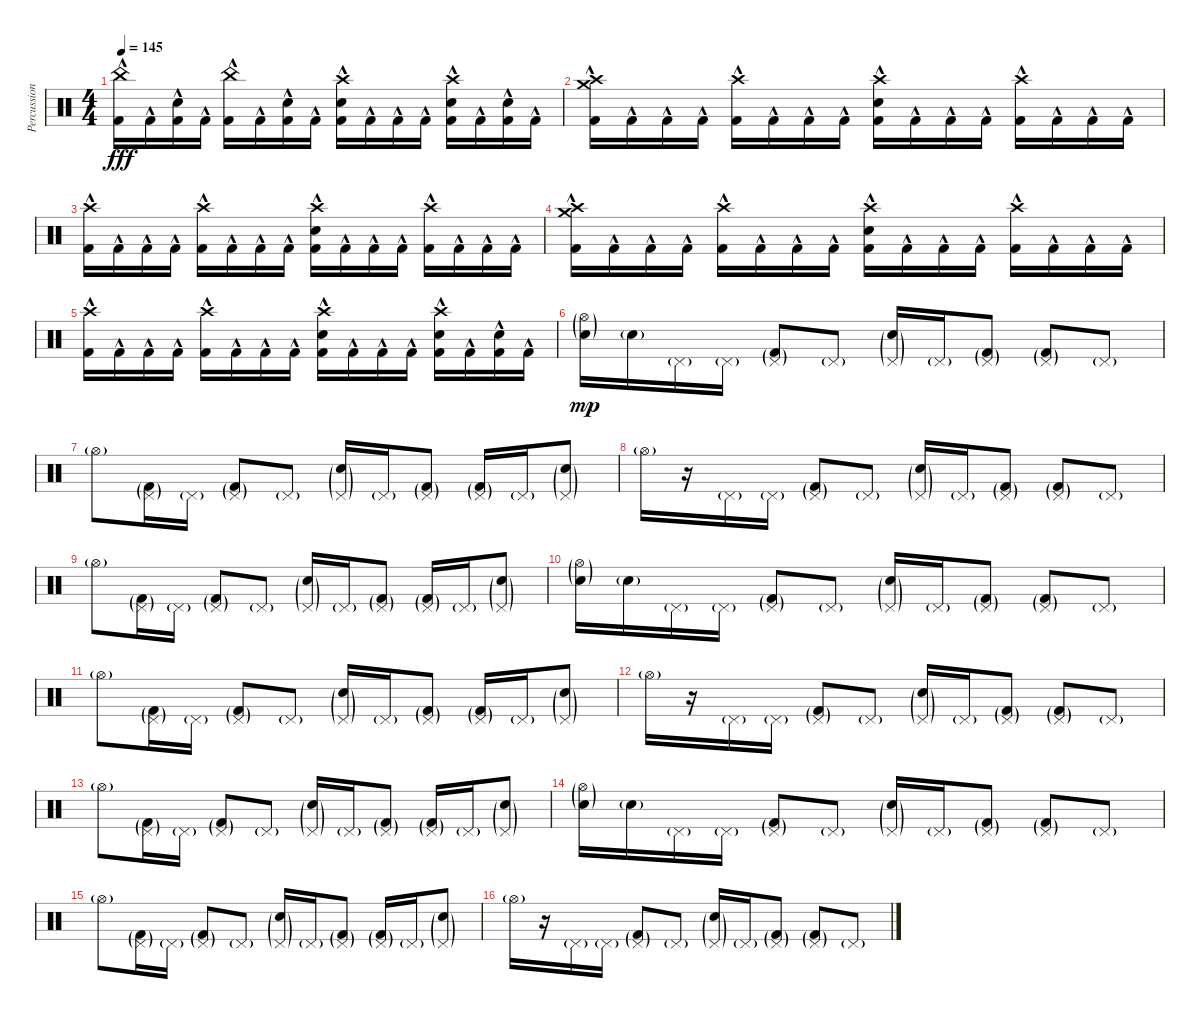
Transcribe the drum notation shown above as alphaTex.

\track ("Percussion" "Percussion") {instrument percussion}
\staff {score}
\articulation defaults
\ts (4 4)
\tempo 145
\clef neutral
\ks c
("China (hit)" "Kick (hit) 2"{hac}).16{dy fff} "Kick (hit) 2"{hac}.16 ("Snare (hit) 2" "Kick (hit) 2"{hac}).16 "Kick (hit) 2"{hac}.16 ("China (hit)" "Kick (hit) 2"{hac}).16 "Kick (hit) 2"{hac}.16 ("Snare (hit) 2" "Kick (hit) 2"{hac}).16 "Kick (hit) 2"{hac}.16 ("Crash high (hit)" "Snare (hit) 2" "Kick (hit) 2"{hac}).16 "Kick (hit) 2"{hac}.16 "Kick (hit) 2"{hac}.16 "Kick (hit) 2"{hac}.16 ("Crash high (hit)" "Snare (hit) 2" "Kick (hit) 2"{hac}).16 "Kick (hit) 2"{hac}.16 ("Snare (hit) 2" "Kick (hit) 2"{hac}).16 "Kick (hit) 2"{hac}.16 |
("Crash medium (hit)" "Crash high (hit)" "Kick (hit) 2"{hac}).16 "Kick (hit) 2"{hac}.16 "Kick (hit) 2"{hac}.16 "Kick (hit) 2"{hac}.16 ("Crash high (hit)" "Kick (hit) 2"{hac}).16 "Kick (hit) 2"{hac}.16 "Kick (hit) 2"{hac}.16 "Kick (hit) 2"{hac}.16 ("Crash high (hit)" "Snare (hit) 2" "Kick (hit) 2"{hac}).16 "Kick (hit) 2"{hac}.16 "Kick (hit) 2"{hac}.16 "Kick (hit) 2"{hac}.16 ("Crash high (hit)" "Kick (hit) 2"{hac}).16 "Kick (hit) 2"{hac}.16 "Kick (hit) 2"{hac}.16 "Kick (hit) 2"{hac}.16 |
("Crash high (hit)" "Kick (hit) 2"{hac}).16 "Kick (hit) 2"{hac}.16 "Kick (hit) 2"{hac}.16 "Kick (hit) 2"{hac}.16 ("Crash high (hit)" "Kick (hit) 2"{hac}).16 "Kick (hit) 2"{hac}.16 "Kick (hit) 2"{hac}.16 "Kick (hit) 2"{hac}.16 ("Crash high (hit)" "Snare (hit) 2" "Kick (hit) 2"{hac}).16 "Kick (hit) 2"{hac}.16 "Kick (hit) 2"{hac}.16 "Kick (hit) 2"{hac}.16 ("Crash high (hit)" "Kick (hit) 2"{hac}).16 "Kick (hit) 2"{hac}.16 "Kick (hit) 2"{hac}.16 "Kick (hit) 2"{hac}.16 |
("Crash medium (hit)" "Crash high (hit)" "Kick (hit) 2"{hac}).16 "Kick (hit) 2"{hac}.16 "Kick (hit) 2"{hac}.16 "Kick (hit) 2"{hac}.16 ("Crash high (hit)" "Kick (hit) 2"{hac}).16 "Kick (hit) 2"{hac}.16 "Kick (hit) 2"{hac}.16 "Kick (hit) 2"{hac}.16 ("Crash high (hit)" "Snare (hit) 2" "Kick (hit) 2"{hac}).16 "Kick (hit) 2"{hac}.16 "Kick (hit) 2"{hac}.16 "Kick (hit) 2"{hac}.16 ("Crash high (hit)" "Kick (hit) 2"{hac}).16 "Kick (hit) 2"{hac}.16 "Kick (hit) 2"{hac}.16 "Kick (hit) 2"{hac}.16 |
("Crash high (hit)" "Kick (hit) 2"{hac}).16 "Kick (hit) 2"{hac}.16 "Kick (hit) 2"{hac}.16 "Kick (hit) 2"{hac}.16 ("Crash high (hit)" "Kick (hit) 2"{hac}).16 "Kick (hit) 2"{hac}.16 "Kick (hit) 2"{hac}.16 "Kick (hit) 2"{hac}.16 ("Crash high (hit)" "Snare (hit) 2" "Kick (hit) 2"{hac}).16 "Kick (hit) 2"{hac}.16 "Kick (hit) 2"{hac}.16 "Kick (hit) 2"{hac}.16 ("Crash high (hit)" "Snare (hit) 2" "Kick (hit) 2"{hac}).16 "Kick (hit) 2"{hac}.16 ("Snare (hit) 2" "Kick (hit) 2"{hac}).16 "Kick (hit) 2"{hac}.16 |
("Hi-Hat (open)"{g} "Snare (hit) 2"{g}).16{dy mp} "Snare (hit) 2"{g}.16 "Pedal Hi-Hat (hit)"{g}.16 "Pedal Hi-Hat (hit)"{g}.16 ("Pedal Hi-Hat (hit)"{g} "Kick (hit) 2"{g}).8 "Pedal Hi-Hat (hit)"{g}.8 ("Pedal Hi-Hat (hit)"{g} "Snare (hit) 2"{g}).16 "Pedal Hi-Hat (hit)"{g}.16 ("Pedal Hi-Hat (hit)"{g} "Kick (hit) 2"{g}).8 ("Pedal Hi-Hat (hit)"{g} "Kick (hit) 2"{g}).8 "Pedal Hi-Hat (hit)"{g}.8 |
"Hi-Hat (open)"{g}.8 ("Pedal Hi-Hat (hit)"{g} "Kick (hit) 2"{g}).16 "Pedal Hi-Hat (hit)"{g}.16 ("Pedal Hi-Hat (hit)"{g} "Kick (hit) 2"{g}).8 "Pedal Hi-Hat (hit)"{g}.8 ("Pedal Hi-Hat (hit)"{g} "Snare (hit) 2"{g}).16 "Pedal Hi-Hat (hit)"{g}.16 ("Pedal Hi-Hat (hit)"{g} "Kick (hit) 2"{g}).8 ("Pedal Hi-Hat (hit)"{g} "Kick (hit) 2"{g}).16 "Pedal Hi-Hat (hit)"{g}.16 ("Pedal Hi-Hat (hit)"{g} "Snare (hit) 2"{g}).8 |
"Hi-Hat (open)"{g}.16 r.16 "Pedal Hi-Hat (hit)"{g}.16 "Pedal Hi-Hat (hit)"{g}.16 ("Pedal Hi-Hat (hit)"{g} "Kick (hit) 2"{g}).8 "Pedal Hi-Hat (hit)"{g}.8 ("Pedal Hi-Hat (hit)"{g} "Snare (hit) 2"{g}).16 "Pedal Hi-Hat (hit)"{g}.16 ("Pedal Hi-Hat (hit)"{g} "Kick (hit) 2"{g}).8 ("Pedal Hi-Hat (hit)"{g} "Kick (hit) 2"{g}).8 "Pedal Hi-Hat (hit)"{g}.8 |
"Hi-Hat (open)"{g}.8 ("Pedal Hi-Hat (hit)"{g} "Kick (hit) 2"{g}).16 "Pedal Hi-Hat (hit)"{g}.16 ("Pedal Hi-Hat (hit)"{g} "Kick (hit) 2"{g}).8 "Pedal Hi-Hat (hit)"{g}.8 ("Pedal Hi-Hat (hit)"{g} "Snare (hit) 2"{g}).16 "Pedal Hi-Hat (hit)"{g}.16 ("Pedal Hi-Hat (hit)"{g} "Kick (hit) 2"{g}).8 ("Pedal Hi-Hat (hit)"{g} "Kick (hit) 2"{g}).16 "Pedal Hi-Hat (hit)"{g}.16 ("Pedal Hi-Hat (hit)"{g} "Snare (hit) 2"{g}).8 |
("Hi-Hat (open)"{g} "Snare (hit) 2"{g}).16 "Snare (hit) 2"{g}.16 "Pedal Hi-Hat (hit)"{g}.16 "Pedal Hi-Hat (hit)"{g}.16 ("Pedal Hi-Hat (hit)"{g} "Kick (hit) 2"{g}).8 "Pedal Hi-Hat (hit)"{g}.8 ("Pedal Hi-Hat (hit)"{g} "Snare (hit) 2"{g}).16 "Pedal Hi-Hat (hit)"{g}.16 ("Pedal Hi-Hat (hit)"{g} "Kick (hit) 2"{g}).8 ("Pedal Hi-Hat (hit)"{g} "Kick (hit) 2"{g}).8 "Pedal Hi-Hat (hit)"{g}.8 |
"Hi-Hat (open)"{g}.8 ("Pedal Hi-Hat (hit)"{g} "Kick (hit) 2"{g}).16 "Pedal Hi-Hat (hit)"{g}.16 ("Pedal Hi-Hat (hit)"{g} "Kick (hit) 2"{g}).8 "Pedal Hi-Hat (hit)"{g}.8 ("Pedal Hi-Hat (hit)"{g} "Snare (hit) 2"{g}).16 "Pedal Hi-Hat (hit)"{g}.16 ("Pedal Hi-Hat (hit)"{g} "Kick (hit) 2"{g}).8 ("Pedal Hi-Hat (hit)"{g} "Kick (hit) 2"{g}).16 "Pedal Hi-Hat (hit)"{g}.16 ("Pedal Hi-Hat (hit)"{g} "Snare (hit) 2"{g}).8 |
"Hi-Hat (open)"{g}.16 r.16 "Pedal Hi-Hat (hit)"{g}.16 "Pedal Hi-Hat (hit)"{g}.16 ("Pedal Hi-Hat (hit)"{g} "Kick (hit) 2"{g}).8 "Pedal Hi-Hat (hit)"{g}.8 ("Pedal Hi-Hat (hit)"{g} "Snare (hit) 2"{g}).16 "Pedal Hi-Hat (hit)"{g}.16 ("Pedal Hi-Hat (hit)"{g} "Kick (hit) 2"{g}).8 ("Pedal Hi-Hat (hit)"{g} "Kick (hit) 2"{g}).8 "Pedal Hi-Hat (hit)"{g}.8 |
"Hi-Hat (open)"{g}.8 ("Pedal Hi-Hat (hit)"{g} "Kick (hit) 2"{g}).16 "Pedal Hi-Hat (hit)"{g}.16 ("Pedal Hi-Hat (hit)"{g} "Kick (hit) 2"{g}).8 "Pedal Hi-Hat (hit)"{g}.8 ("Pedal Hi-Hat (hit)"{g} "Snare (hit) 2"{g}).16 "Pedal Hi-Hat (hit)"{g}.16 ("Pedal Hi-Hat (hit)"{g} "Kick (hit) 2"{g}).8 ("Pedal Hi-Hat (hit)"{g} "Kick (hit) 2"{g}).16 "Pedal Hi-Hat (hit)"{g}.16 ("Pedal Hi-Hat (hit)"{g} "Snare (hit) 2"{g}).8 |
("Hi-Hat (open)"{g} "Snare (hit) 2"{g}).16 "Snare (hit) 2"{g}.16 "Pedal Hi-Hat (hit)"{g}.16 "Pedal Hi-Hat (hit)"{g}.16 ("Pedal Hi-Hat (hit)"{g} "Kick (hit) 2"{g}).8 "Pedal Hi-Hat (hit)"{g}.8 ("Pedal Hi-Hat (hit)"{g} "Snare (hit) 2"{g}).16 "Pedal Hi-Hat (hit)"{g}.16 ("Pedal Hi-Hat (hit)"{g} "Kick (hit) 2"{g}).8 ("Pedal Hi-Hat (hit)"{g} "Kick (hit) 2"{g}).8 "Pedal Hi-Hat (hit)"{g}.8 |
"Hi-Hat (open)"{g}.8 ("Pedal Hi-Hat (hit)"{g} "Kick (hit) 2"{g}).16 "Pedal Hi-Hat (hit)"{g}.16 ("Pedal Hi-Hat (hit)"{g} "Kick (hit) 2"{g}).8 "Pedal Hi-Hat (hit)"{g}.8 ("Pedal Hi-Hat (hit)"{g} "Snare (hit) 2"{g}).16 "Pedal Hi-Hat (hit)"{g}.16 ("Pedal Hi-Hat (hit)"{g} "Kick (hit) 2"{g}).8 ("Pedal Hi-Hat (hit)"{g} "Kick (hit) 2"{g}).16 "Pedal Hi-Hat (hit)"{g}.16 ("Pedal Hi-Hat (hit)"{g} "Snare (hit) 2"{g}).8 |
"Hi-Hat (open)"{g}.16 r.16 "Pedal Hi-Hat (hit)"{g}.16 "Pedal Hi-Hat (hit)"{g}.16 ("Pedal Hi-Hat (hit)"{g} "Kick (hit) 2"{g}).8 "Pedal Hi-Hat (hit)"{g}.8 ("Pedal Hi-Hat (hit)"{g} "Snare (hit) 2"{g}).16 "Pedal Hi-Hat (hit)"{g}.16 ("Pedal Hi-Hat (hit)"{g} "Kick (hit) 2"{g}).8 ("Pedal Hi-Hat (hit)"{g} "Kick (hit) 2"{g}).8 "Pedal Hi-Hat (hit)"{g}.8
